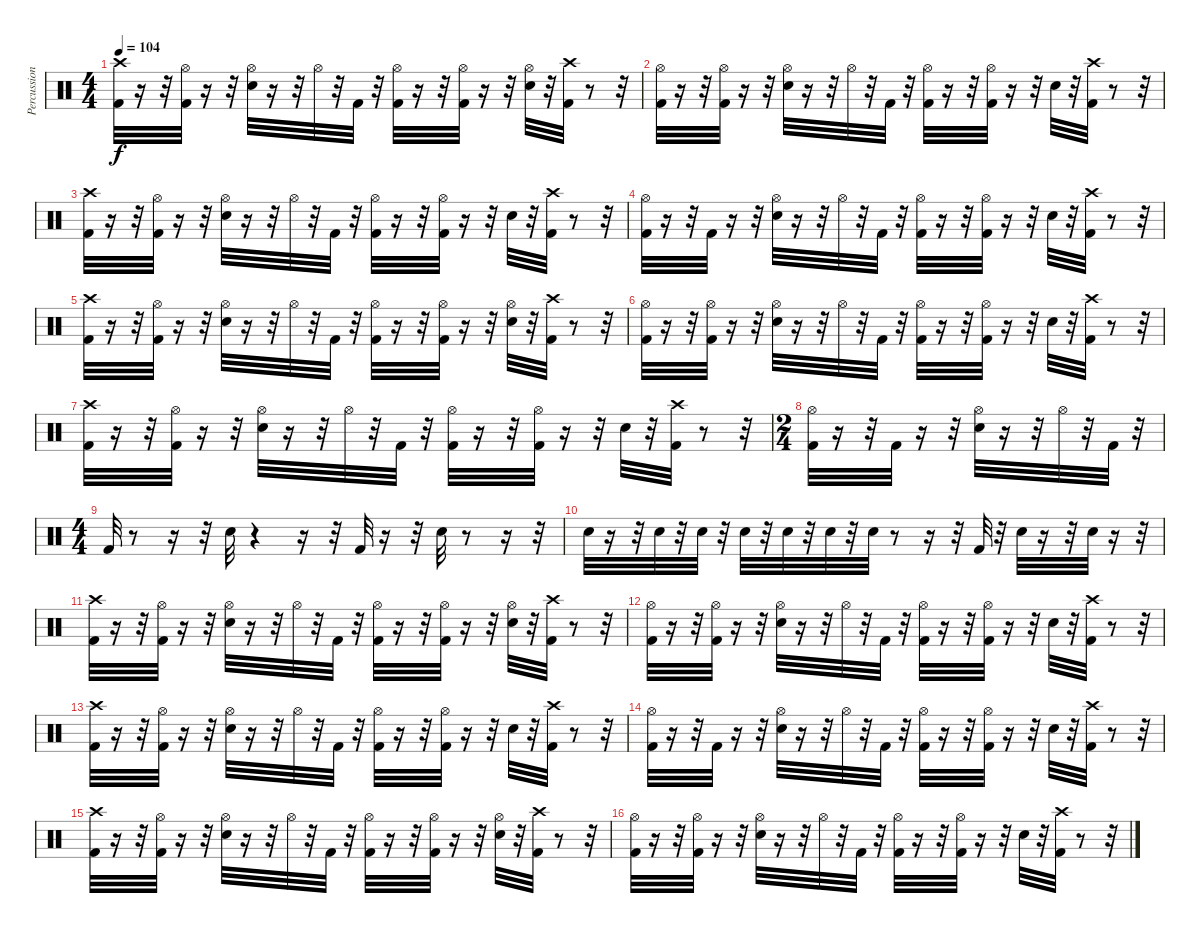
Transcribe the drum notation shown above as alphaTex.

\track ("Percussions" "Percussion") {instrument percussion}
\staff {score}
\articulation defaults
\ts (4 4)
\tempo 104
\clef neutral
\ks c
("Crash high (hit)" "Kick (hit) 2").32{dy f} r.16 r.32 ("Hi-Hat (open)" "Kick (hit) 2").32 r.16 r.32 ("Hi-Hat (open)" "Snare (hit) 2").32 r.16 r.32 "Hi-Hat (open)".32 r.32 "Kick (hit) 2".32 r.32 ("Kick (hit) 2" "Hi-Hat (open)").32 r.16 r.32 ("Kick (hit) 2" "Hi-Hat (open)").32 r.16 r.32 ("Hi-Hat (open)" "Snare (hit) 2").32 r.32 ("Kick (hit) 2" "Crash high (hit)").32 r.8 r.32 |
("Hi-Hat (open)" "Kick (hit) 2").32 r.16 r.32 ("Kick (hit) 2" "Hi-Hat (open)").32 r.16 r.32 ("Hi-Hat (open)" "Snare (hit) 2").32 r.16 r.32 "Hi-Hat (open)".32 r.32 "Kick (hit) 2".32 r.32 ("Kick (hit) 2" "Hi-Hat (open)").32 r.16 r.32 ("Kick (hit) 2" "Hi-Hat (open)").32 r.16 r.32 "Snare (hit) 2".32 r.32 ("Kick (hit) 2" "Crash high (hit)").32 r.8 r.32 |
("Crash high (hit)" "Kick (hit) 2").32 r.16 r.32 ("Kick (hit) 2" "Hi-Hat (open)").32 r.16 r.32 ("Snare (hit) 2" "Hi-Hat (open)").32 r.16 r.32 "Hi-Hat (open)".32 r.32 "Kick (hit) 2".32 r.32 ("Kick (hit) 2" "Hi-Hat (open)").32 r.16 r.32 ("Hi-Hat (open)" "Kick (hit) 2").32 r.16 r.32 "Snare (hit) 2".32 r.32 ("Crash high (hit)" "Kick (hit) 2").32 r.8 r.32 |
("Kick (hit) 2" "Hi-Hat (open)").32 r.16 r.32 "Kick (hit) 2".32 r.16 r.32 ("Snare (hit) 2" "Hi-Hat (open)").32 r.16 r.32 "Hi-Hat (open)".32 r.32 "Kick (hit) 2".32 r.32 ("Hi-Hat (open)" "Kick (hit) 2").32 r.16 r.32 ("Kick (hit) 2" "Hi-Hat (open)").32 r.16 r.32 "Snare (hit) 2".32 r.32 ("Kick (hit) 2" "Crash high (hit)").32 r.8 r.32 |
("Crash high (hit)" "Kick (hit) 2").32 r.16 r.32 ("Hi-Hat (open)" "Kick (hit) 2").32 r.16 r.32 ("Hi-Hat (open)" "Snare (hit) 2").32 r.16 r.32 "Hi-Hat (open)".32 r.32 "Kick (hit) 2".32 r.32 ("Kick (hit) 2" "Hi-Hat (open)").32 r.16 r.32 ("Kick (hit) 2" "Hi-Hat (open)").32 r.16 r.32 ("Hi-Hat (open)" "Snare (hit) 2").32 r.32 ("Kick (hit) 2" "Crash high (hit)").32 r.8 r.32 |
("Hi-Hat (open)" "Kick (hit) 2").32 r.16 r.32 ("Kick (hit) 2" "Hi-Hat (open)").32 r.16 r.32 ("Hi-Hat (open)" "Snare (hit) 2").32 r.16 r.32 "Hi-Hat (open)".32 r.32 "Kick (hit) 2".32 r.32 ("Kick (hit) 2" "Hi-Hat (open)").32 r.16 r.32 ("Kick (hit) 2" "Hi-Hat (open)").32 r.16 r.32 "Snare (hit) 2".32 r.32 ("Kick (hit) 2" "Crash high (hit)").32 r.8 r.32 |
("Crash high (hit)" "Kick (hit) 2").32 r.16 r.32 ("Kick (hit) 2" "Hi-Hat (open)").32 r.16 r.32 ("Snare (hit) 2" "Hi-Hat (open)").32 r.16 r.32 "Hi-Hat (open)".32 r.32 "Kick (hit) 2".32 r.32 ("Kick (hit) 2" "Hi-Hat (open)").32 r.16 r.32 ("Hi-Hat (open)" "Kick (hit) 2").32 r.16 r.32 "Snare (hit) 2".32 r.32 ("Crash high (hit)" "Kick (hit) 2").32 r.8 r.32 |
\ts (2 4)
("Kick (hit) 2" "Hi-Hat (open)").32 r.16 r.32 "Kick (hit) 2".32 r.16 r.32 ("Snare (hit) 2" "Hi-Hat (open)").32 r.16 r.32 "Hi-Hat (open)".32 r.32 "Kick (hit) 2".32 r.32 |
\ts (4 4)
"Kick (hit) 2".32 r.8 r.16 r.32 "Snare (hit) 2".32 r.4 r.16 r.32 "Kick (hit) 2".32 r.16 r.32 "Snare (hit) 2".32 r.8 r.16 r.32 |
"Snare (hit) 2".32 r.16 r.32 "Snare (hit) 2".32 r.32 "Snare (hit) 2".32 r.32 "Snare (hit) 2".32 r.32 "Snare (hit) 2".32 r.32 "Snare (hit) 2".32 r.32 "Snare (hit) 2".32 r.8 r.16 r.32 "Kick (hit) 2".32 r.32 "Snare (hit) 2".32 r.16 r.32 "Snare (hit) 2".32 r.16 r.32 |
("Crash high (hit)" "Kick (hit) 2").32 r.16 r.32 ("Hi-Hat (open)" "Kick (hit) 2").32 r.16 r.32 ("Hi-Hat (open)" "Snare (hit) 2").32 r.16 r.32 "Hi-Hat (open)".32 r.32 "Kick (hit) 2".32 r.32 ("Kick (hit) 2" "Hi-Hat (open)").32 r.16 r.32 ("Kick (hit) 2" "Hi-Hat (open)").32 r.16 r.32 ("Hi-Hat (open)" "Snare (hit) 2").32 r.32 ("Kick (hit) 2" "Crash high (hit)").32 r.8 r.32 |
("Hi-Hat (open)" "Kick (hit) 2").32 r.16 r.32 ("Kick (hit) 2" "Hi-Hat (open)").32 r.16 r.32 ("Hi-Hat (open)" "Snare (hit) 2").32 r.16 r.32 "Hi-Hat (open)".32 r.32 "Kick (hit) 2".32 r.32 ("Kick (hit) 2" "Hi-Hat (open)").32 r.16 r.32 ("Kick (hit) 2" "Hi-Hat (open)").32 r.16 r.32 "Snare (hit) 2".32 r.32 ("Kick (hit) 2" "Crash high (hit)").32 r.8 r.32 |
("Crash high (hit)" "Kick (hit) 2").32 r.16 r.32 ("Kick (hit) 2" "Hi-Hat (open)").32 r.16 r.32 ("Snare (hit) 2" "Hi-Hat (open)").32 r.16 r.32 "Hi-Hat (open)".32 r.32 "Kick (hit) 2".32 r.32 ("Kick (hit) 2" "Hi-Hat (open)").32 r.16 r.32 ("Hi-Hat (open)" "Kick (hit) 2").32 r.16 r.32 "Snare (hit) 2".32 r.32 ("Crash high (hit)" "Kick (hit) 2").32 r.8 r.32 |
("Kick (hit) 2" "Hi-Hat (open)").32 r.16 r.32 "Kick (hit) 2".32 r.16 r.32 ("Snare (hit) 2" "Hi-Hat (open)").32 r.16 r.32 "Hi-Hat (open)".32 r.32 "Kick (hit) 2".32 r.32 ("Hi-Hat (open)" "Kick (hit) 2").32 r.16 r.32 ("Kick (hit) 2" "Hi-Hat (open)").32 r.16 r.32 "Snare (hit) 2".32 r.32 ("Kick (hit) 2" "Crash high (hit)").32 r.8 r.32 |
("Crash high (hit)" "Kick (hit) 2").32 r.16 r.32 ("Hi-Hat (open)" "Kick (hit) 2").32 r.16 r.32 ("Hi-Hat (open)" "Snare (hit) 2").32 r.16 r.32 "Hi-Hat (open)".32 r.32 "Kick (hit) 2".32 r.32 ("Kick (hit) 2" "Hi-Hat (open)").32 r.16 r.32 ("Kick (hit) 2" "Hi-Hat (open)").32 r.16 r.32 ("Hi-Hat (open)" "Snare (hit) 2").32 r.32 ("Kick (hit) 2" "Crash high (hit)").32 r.8 r.32 |
("Hi-Hat (open)" "Kick (hit) 2").32 r.16 r.32 ("Kick (hit) 2" "Hi-Hat (open)").32 r.16 r.32 ("Hi-Hat (open)" "Snare (hit) 2").32 r.16 r.32 "Hi-Hat (open)".32 r.32 "Kick (hit) 2".32 r.32 ("Kick (hit) 2" "Hi-Hat (open)").32 r.16 r.32 ("Kick (hit) 2" "Hi-Hat (open)").32 r.16 r.32 "Snare (hit) 2".32 r.32 ("Kick (hit) 2" "Crash high (hit)").32 r.8 r.32
